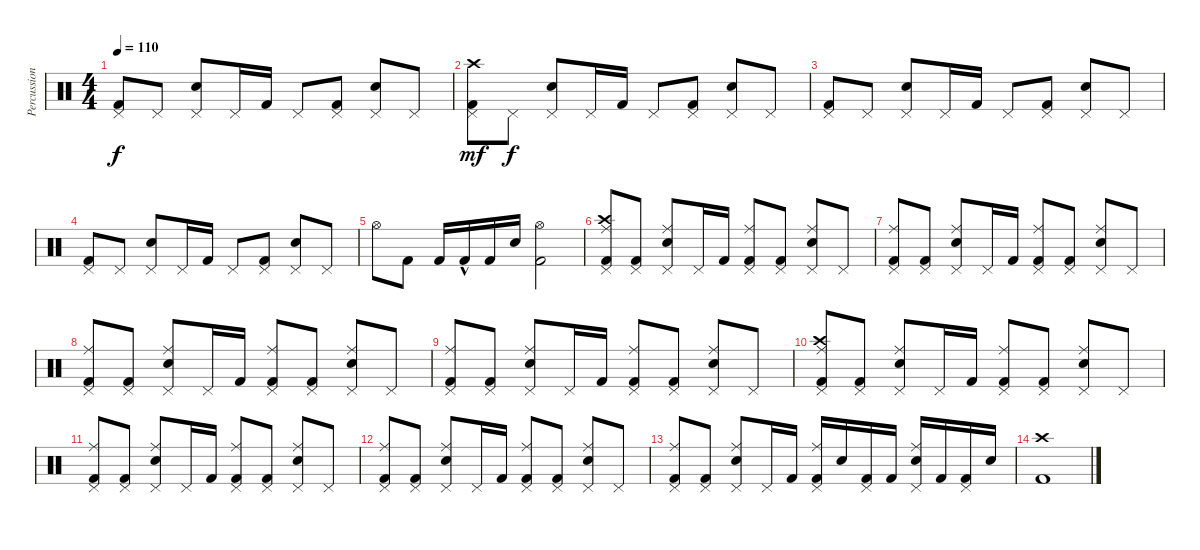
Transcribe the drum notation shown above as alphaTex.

\track ("Percussion" "Percussion") {instrument percussion}
\staff {score}
\articulation defaults
\ts (4 4)
\tempo 110
\clef neutral
\ks c
("Pedal Hi-Hat (hit)" "Kick (hit) 2").8{dy f} "Pedal Hi-Hat (hit)".8 ("Pedal Hi-Hat (hit)" "Electric Snare (hit)").8 "Pedal Hi-Hat (hit)".16 "Kick (hit) 2".16 "Pedal Hi-Hat (hit)".8 ("Pedal Hi-Hat (hit)" "Kick (hit) 2").8 ("Pedal Hi-Hat (hit)" "Electric Snare (hit)").8 "Pedal Hi-Hat (hit)".8 |
("Pedal Hi-Hat (hit)" "Kick (hit) 2" "Crash high (hit)").8{dy mf} "Pedal Hi-Hat (hit)".8{dy f} ("Pedal Hi-Hat (hit)" "Electric Snare (hit)").8 "Pedal Hi-Hat (hit)".16 "Kick (hit) 2".16 "Pedal Hi-Hat (hit)".8 ("Pedal Hi-Hat (hit)" "Kick (hit) 2").8 ("Pedal Hi-Hat (hit)" "Electric Snare (hit)").8 "Pedal Hi-Hat (hit)".8 |
("Pedal Hi-Hat (hit)" "Kick (hit) 2").8 "Pedal Hi-Hat (hit)".8 ("Pedal Hi-Hat (hit)" "Electric Snare (hit)").8 "Pedal Hi-Hat (hit)".16 "Kick (hit) 2".16 "Pedal Hi-Hat (hit)".8 ("Pedal Hi-Hat (hit)" "Kick (hit) 2").8 ("Pedal Hi-Hat (hit)" "Electric Snare (hit)").8 "Pedal Hi-Hat (hit)".8 |
("Pedal Hi-Hat (hit)" "Kick (hit) 2").8 "Pedal Hi-Hat (hit)".8 ("Pedal Hi-Hat (hit)" "Electric Snare (hit)").8 "Pedal Hi-Hat (hit)".16 "Kick (hit) 2".16 "Pedal Hi-Hat (hit)".8 ("Pedal Hi-Hat (hit)" "Kick (hit) 2").8 ("Pedal Hi-Hat (hit)" "Electric Snare (hit)").8 "Pedal Hi-Hat (hit)".8 |
"Hi-Hat (open)".8 "Kick (hit) 2".8 "Kick (hit) 2".16 "Kick (hit) 2"{hac}.16 "Kick (hit) 2".16 "Electric Snare (hit)".16 ("Hi-Hat (open)" "Kick (hit) 2").2 |
("Pedal Hi-Hat (hit)" "Kick (hit) 2" "Ride (middle)" "Crash high (hit)").8 ("Pedal Hi-Hat (hit)" "Kick (hit) 2").8 ("Pedal Hi-Hat (hit)" "Electric Snare (hit)" "Ride (middle)").8 "Pedal Hi-Hat (hit)".16 "Kick (hit) 2".16 ("Pedal Hi-Hat (hit)" "Kick (hit) 2" "Ride (middle)").8 ("Pedal Hi-Hat (hit)" "Kick (hit) 2").8 ("Pedal Hi-Hat (hit)" "Electric Snare (hit)" "Ride (middle)").8 "Pedal Hi-Hat (hit)".8 |
("Pedal Hi-Hat (hit)" "Kick (hit) 2" "Ride (middle)").8 ("Pedal Hi-Hat (hit)" "Kick (hit) 2").8 ("Pedal Hi-Hat (hit)" "Electric Snare (hit)" "Ride (middle)").8 "Pedal Hi-Hat (hit)".16 "Kick (hit) 2".16 ("Pedal Hi-Hat (hit)" "Kick (hit) 2" "Ride (middle)").8 ("Pedal Hi-Hat (hit)" "Kick (hit) 2").8 ("Pedal Hi-Hat (hit)" "Electric Snare (hit)" "Ride (middle)").8 "Pedal Hi-Hat (hit)".8 |
("Pedal Hi-Hat (hit)" "Kick (hit) 2" "Ride (middle)").8 ("Pedal Hi-Hat (hit)" "Kick (hit) 2").8 ("Pedal Hi-Hat (hit)" "Electric Snare (hit)" "Ride (middle)").8 "Pedal Hi-Hat (hit)".16 "Kick (hit) 2".16 ("Pedal Hi-Hat (hit)" "Kick (hit) 2" "Ride (middle)").8 ("Pedal Hi-Hat (hit)" "Kick (hit) 2").8 ("Pedal Hi-Hat (hit)" "Electric Snare (hit)" "Ride (middle)").8 "Pedal Hi-Hat (hit)".8 |
("Pedal Hi-Hat (hit)" "Kick (hit) 2" "Ride (middle)").8 ("Pedal Hi-Hat (hit)" "Kick (hit) 2").8 ("Pedal Hi-Hat (hit)" "Electric Snare (hit)" "Ride (middle)").8 "Pedal Hi-Hat (hit)".16 "Kick (hit) 2".16 ("Pedal Hi-Hat (hit)" "Kick (hit) 2" "Ride (middle)").8 ("Pedal Hi-Hat (hit)" "Kick (hit) 2").8 ("Pedal Hi-Hat (hit)" "Electric Snare (hit)" "Ride (middle)").8 "Pedal Hi-Hat (hit)".8 |
("Pedal Hi-Hat (hit)" "Kick (hit) 2" "Ride (middle)" "Crash high (hit)").8 ("Pedal Hi-Hat (hit)" "Kick (hit) 2").8 ("Pedal Hi-Hat (hit)" "Electric Snare (hit)" "Ride (middle)").8 "Pedal Hi-Hat (hit)".16 "Kick (hit) 2".16 ("Pedal Hi-Hat (hit)" "Kick (hit) 2" "Ride (middle)").8 ("Pedal Hi-Hat (hit)" "Kick (hit) 2").8 ("Pedal Hi-Hat (hit)" "Electric Snare (hit)" "Ride (middle)").8 "Pedal Hi-Hat (hit)".8 |
("Pedal Hi-Hat (hit)" "Kick (hit) 2" "Ride (middle)").8 ("Pedal Hi-Hat (hit)" "Kick (hit) 2").8 ("Pedal Hi-Hat (hit)" "Electric Snare (hit)" "Ride (middle)").8 "Pedal Hi-Hat (hit)".16 "Kick (hit) 2".16 ("Pedal Hi-Hat (hit)" "Kick (hit) 2" "Ride (middle)").8 ("Pedal Hi-Hat (hit)" "Kick (hit) 2").8 ("Pedal Hi-Hat (hit)" "Electric Snare (hit)" "Ride (middle)").8 "Pedal Hi-Hat (hit)".8 |
("Pedal Hi-Hat (hit)" "Kick (hit) 2" "Ride (middle)").8 ("Pedal Hi-Hat (hit)" "Kick (hit) 2").8 ("Pedal Hi-Hat (hit)" "Electric Snare (hit)" "Ride (middle)").8 "Pedal Hi-Hat (hit)".16 "Kick (hit) 2".16 ("Pedal Hi-Hat (hit)" "Kick (hit) 2" "Ride (middle)").8 ("Pedal Hi-Hat (hit)" "Kick (hit) 2").8 ("Pedal Hi-Hat (hit)" "Electric Snare (hit)" "Ride (middle)").8 "Pedal Hi-Hat (hit)".8 |
("Pedal Hi-Hat (hit)" "Kick (hit) 2" "Ride (middle)").8 ("Pedal Hi-Hat (hit)" "Kick (hit) 2").8 ("Pedal Hi-Hat (hit)" "Electric Snare (hit)" "Ride (middle)").8 "Pedal Hi-Hat (hit)".16 "Kick (hit) 2".16 ("Pedal Hi-Hat (hit)" "Kick (hit) 2" "Ride (middle)").16 "Electric Snare (hit)".16 ("Pedal Hi-Hat (hit)" "Kick (hit) 2").16 "Kick (hit) 2".16 ("Pedal Hi-Hat (hit)" "Electric Snare (hit)" "Ride (middle)").16 "Kick (hit) 2".16 ("Pedal Hi-Hat (hit)" "Kick (hit) 2").16 "Electric Snare (hit)".16 |
("Crash high (hit)" "Kick (hit) 2").1
